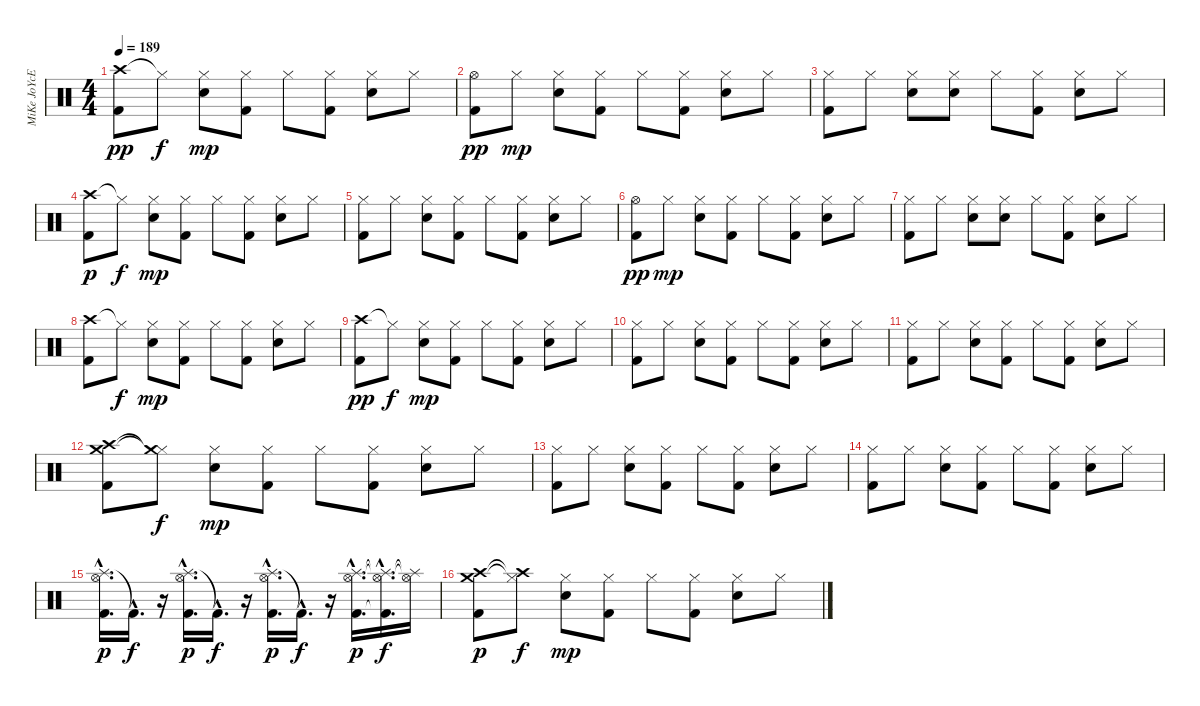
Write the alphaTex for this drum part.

\track ("MiKe JoYcE" "MiKe JoYcE") {instrument percussion}
\staff {score}
\articulation defaults
\ts (4 4)
\tempo 189
\clef neutral
\ks c
("Crash high (hit)" "Kick (hit) 2").8{dy pp} "Hi-Hat (closed)"{t}.8{dy f} ("Hi-Hat (closed)" "Electric Snare (hit)").8{dy mp} ("Hi-Hat (closed)" "Kick (hit) 2").8 "Hi-Hat (closed)".8 ("Hi-Hat (closed)" "Kick (hit) 2").8 ("Hi-Hat (closed)" "Electric Snare (hit)").8 "Hi-Hat (closed)".8 |
("Hi-Hat (open)" "Kick (hit) 2").8{dy pp} "Hi-Hat (closed)".8{dy mp} ("Hi-Hat (closed)" "Electric Snare (hit)").8 ("Hi-Hat (closed)" "Kick (hit) 2").8 "Hi-Hat (closed)".8 ("Hi-Hat (closed)" "Kick (hit) 2").8 ("Hi-Hat (closed)" "Electric Snare (hit)").8 "Hi-Hat (closed)".8 |
("Hi-Hat (closed)" "Kick (hit) 2").8 "Hi-Hat (closed)".8 ("Hi-Hat (closed)" "Electric Snare (hit)").8 ("Hi-Hat (closed)" "Electric Snare (hit)").8 "Hi-Hat (closed)".8 ("Hi-Hat (closed)" "Kick (hit) 2").8 ("Hi-Hat (closed)" "Electric Snare (hit)").8 "Hi-Hat (closed)".8 |
("Crash high (hit)" "Kick (hit) 2").8{dy p} "Hi-Hat (closed)"{t}.8{dy f} ("Hi-Hat (closed)" "Electric Snare (hit)").8{dy mp} ("Hi-Hat (closed)" "Kick (hit) 2").8 "Hi-Hat (closed)".8 ("Hi-Hat (closed)" "Kick (hit) 2").8 ("Hi-Hat (closed)" "Electric Snare (hit)").8 "Hi-Hat (closed)".8 |
("Hi-Hat (closed)" "Kick (hit) 2").8 "Hi-Hat (closed)".8 ("Hi-Hat (closed)" "Electric Snare (hit)").8 ("Hi-Hat (closed)" "Kick (hit) 2").8 "Hi-Hat (closed)".8 ("Hi-Hat (closed)" "Kick (hit) 2").8 ("Hi-Hat (closed)" "Electric Snare (hit)").8 "Hi-Hat (closed)".8 |
("Hi-Hat (open)" "Kick (hit) 2").8{dy pp} "Hi-Hat (closed)".8{dy mp} ("Hi-Hat (closed)" "Electric Snare (hit)").8 ("Hi-Hat (closed)" "Kick (hit) 2").8 "Hi-Hat (closed)".8 ("Hi-Hat (closed)" "Kick (hit) 2").8 ("Hi-Hat (closed)" "Electric Snare (hit)").8 "Hi-Hat (closed)".8 |
("Hi-Hat (closed)" "Kick (hit) 2").8 "Hi-Hat (closed)".8 ("Hi-Hat (closed)" "Electric Snare (hit)").8 ("Hi-Hat (closed)" "Electric Snare (hit)").8 "Hi-Hat (closed)".8 ("Hi-Hat (closed)" "Kick (hit) 2").8 ("Hi-Hat (closed)" "Electric Snare (hit)").8 "Hi-Hat (closed)".8 |
("Crash high (hit)" "Kick (hit) 2").8 "Hi-Hat (closed)"{t}.8{dy f} ("Hi-Hat (closed)" "Electric Snare (hit)").8{dy mp} ("Hi-Hat (closed)" "Kick (hit) 2").8 "Hi-Hat (closed)".8 ("Hi-Hat (closed)" "Kick (hit) 2").8 ("Hi-Hat (closed)" "Electric Snare (hit)").8 "Hi-Hat (closed)".8 |
("Crash high (hit)" "Kick (hit) 2").8{dy pp} "Hi-Hat (closed)"{t}.8{dy f} ("Hi-Hat (closed)" "Electric Snare (hit)").8{dy mp} ("Hi-Hat (closed)" "Kick (hit) 2").8 "Hi-Hat (closed)".8 ("Hi-Hat (closed)" "Kick (hit) 2").8 ("Hi-Hat (closed)" "Electric Snare (hit)").8 "Hi-Hat (closed)".8 |
("Hi-Hat (closed)" "Kick (hit) 2").8 "Hi-Hat (closed)".8 ("Hi-Hat (closed)" "Electric Snare (hit)").8 ("Hi-Hat (closed)" "Kick (hit) 2").8 "Hi-Hat (closed)".8 ("Hi-Hat (closed)" "Kick (hit) 2").8 ("Hi-Hat (closed)" "Electric Snare (hit)").8 "Hi-Hat (closed)".8 |
("Hi-Hat (closed)" "Kick (hit) 2").8 "Hi-Hat (closed)".8 ("Hi-Hat (closed)" "Electric Snare (hit)").8 ("Hi-Hat (closed)" "Kick (hit) 2").8 "Hi-Hat (closed)".8 ("Hi-Hat (closed)" "Kick (hit) 2").8 ("Hi-Hat (closed)" "Electric Snare (hit)").8 "Hi-Hat (closed)".8 |
("Crash high (hit)" "Crash medium (hit)" "Kick (hit) 2").8 ("Hi-Hat (closed)"{t} "Crash medium (hit)"{t}).8{dy f} ("Hi-Hat (closed)" "Electric Snare (hit)").8{dy mp} ("Hi-Hat (closed)" "Kick (hit) 2").8 "Hi-Hat (closed)".8 ("Hi-Hat (closed)" "Kick (hit) 2").8 ("Hi-Hat (closed)" "Electric Snare (hit)").8 "Hi-Hat (closed)".8 |
("Hi-Hat (closed)" "Kick (hit) 2").8 "Hi-Hat (closed)".8 ("Hi-Hat (closed)" "Electric Snare (hit)").8 ("Hi-Hat (closed)" "Kick (hit) 2").8 "Hi-Hat (closed)".8 ("Hi-Hat (closed)" "Kick (hit) 2").8 ("Hi-Hat (closed)" "Electric Snare (hit)").8 "Hi-Hat (closed)".8 |
("Hi-Hat (closed)" "Kick (hit) 2").8 "Hi-Hat (closed)".8 ("Hi-Hat (closed)" "Electric Snare (hit)").8 ("Hi-Hat (closed)" "Kick (hit) 2").8 "Hi-Hat (closed)".8 ("Hi-Hat (closed)" "Kick (hit) 2").8 ("Hi-Hat (closed)" "Electric Snare (hit)").8 "Hi-Hat (closed)".8 |
("Splash (hit)"{hac} "Hi-Hat (open)"{hac} "Kick (hit) 2"{hac}).16{d dy p} "Kick (hit) 2"{hac t}.16{d dy f} r.16 ("Splash (hit)"{hac} "Hi-Hat (open)"{hac} "Kick (hit) 2"{hac}).16{d dy p} "Kick (hit) 2"{hac t}.16{d dy f} r.16 ("Splash (hit)"{hac} "Hi-Hat (open)"{hac} "Kick (hit) 2"{hac}).16{d dy p} "Kick (hit) 2"{hac t}.16{d dy f} r.16 ("Splash (hit)"{hac} "Hi-Hat (open)"{hac} "Kick (hit) 2"{hac}).16{d dy p} ("Splash (hit)"{hac t} "Hi-Hat (open)"{hac t} "Kick (hit) 2"{hac t}).16{d dy f} ("Splash (hit)"{t} "Hi-Hat (open)"{t}).16 |
("Crash medium (hit)" "Crash high (hit)" "Kick (hit) 2").8{dy p} ("Hi-Hat (closed)"{t} "Crash high (hit)"{t}).8{dy f} ("Hi-Hat (closed)" "Electric Snare (hit)").8{dy mp} ("Hi-Hat (closed)" "Kick (hit) 2").8 "Hi-Hat (closed)".8 ("Hi-Hat (closed)" "Kick (hit) 2").8 ("Hi-Hat (closed)" "Electric Snare (hit)").8 "Hi-Hat (closed)".8
